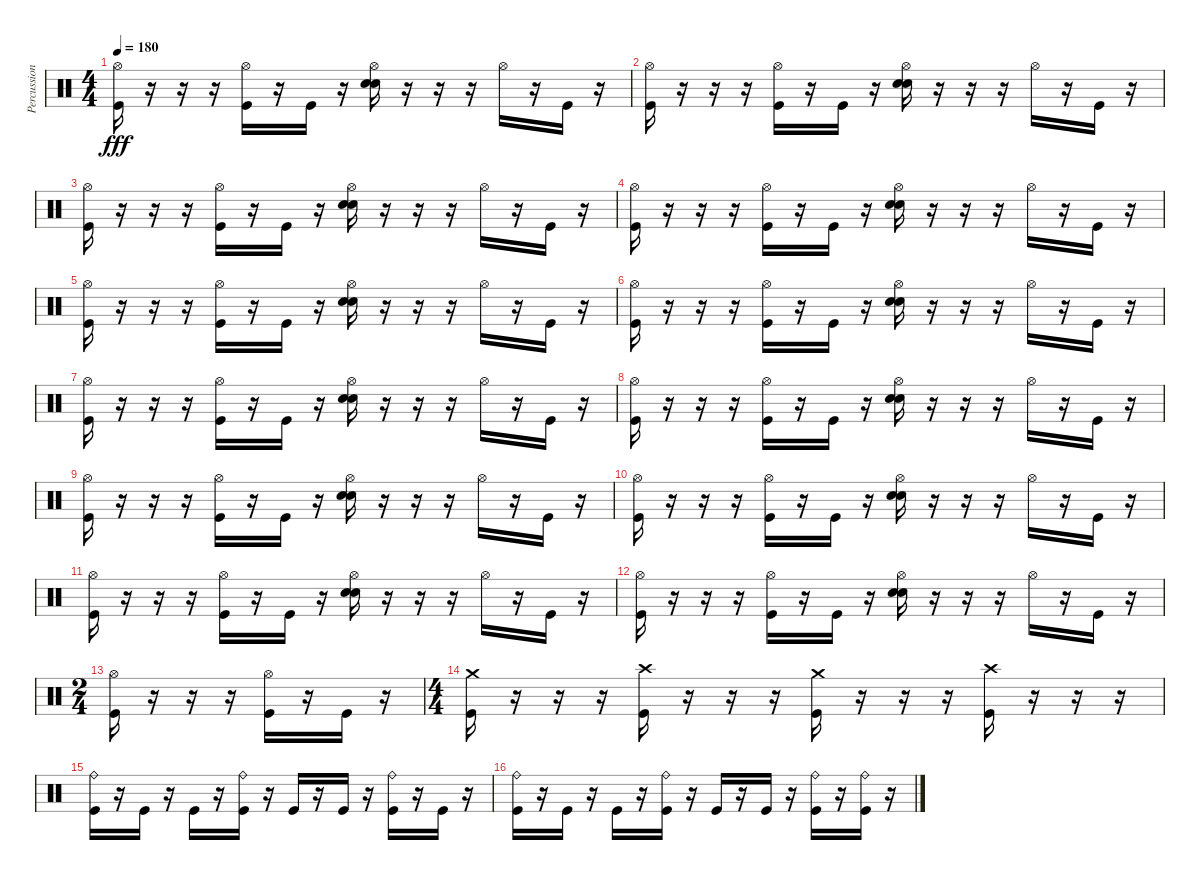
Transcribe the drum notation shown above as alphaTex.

\track ("Percussion" "Percussion") {instrument percussion}
\staff {score}
\articulation defaults
\ts (4 4)
\tempo 180
\clef neutral
\ks c
("Hi-Hat (open)" "Kick (hit)").16{dy fff} r.16 r.16 r.16 ("Hi-Hat (open)" "Kick (hit)").16 r.16 "Kick (hit)".16 r.16 ("Hi-Hat (open)" "Snare (hit) 2" "Electric Snare (hit)").16 r.16 r.16 r.16 "Hi-Hat (open)".16 r.16 "Kick (hit)".16 r.16 |
("Hi-Hat (open)" "Kick (hit)").16 r.16 r.16 r.16 ("Hi-Hat (open)" "Kick (hit)").16 r.16 "Kick (hit)".16 r.16 ("Hi-Hat (open)" "Snare (hit) 2" "Electric Snare (hit)").16 r.16 r.16 r.16 "Hi-Hat (open)".16 r.16 "Kick (hit)".16 r.16 |
("Hi-Hat (open)" "Kick (hit)").16 r.16 r.16 r.16 ("Hi-Hat (open)" "Kick (hit)").16 r.16 "Kick (hit)".16 r.16 ("Hi-Hat (open)" "Snare (hit) 2" "Electric Snare (hit)").16 r.16 r.16 r.16 "Hi-Hat (open)".16 r.16 "Kick (hit)".16 r.16 |
("Hi-Hat (open)" "Kick (hit)").16 r.16 r.16 r.16 ("Hi-Hat (open)" "Kick (hit)").16 r.16 "Kick (hit)".16 r.16 ("Hi-Hat (open)" "Snare (hit) 2" "Electric Snare (hit)").16 r.16 r.16 r.16 "Hi-Hat (open)".16 r.16 "Kick (hit)".16 r.16 |
("Hi-Hat (open)" "Kick (hit)").16 r.16 r.16 r.16 ("Hi-Hat (open)" "Kick (hit)").16 r.16 "Kick (hit)".16 r.16 ("Hi-Hat (open)" "Snare (hit) 2" "Electric Snare (hit)").16 r.16 r.16 r.16 "Hi-Hat (open)".16 r.16 "Kick (hit)".16 r.16 |
("Hi-Hat (open)" "Kick (hit)").16 r.16 r.16 r.16 ("Hi-Hat (open)" "Kick (hit)").16 r.16 "Kick (hit)".16 r.16 ("Hi-Hat (open)" "Snare (hit) 2" "Electric Snare (hit)").16 r.16 r.16 r.16 "Hi-Hat (open)".16 r.16 "Kick (hit)".16 r.16 |
("Hi-Hat (open)" "Kick (hit)").16 r.16 r.16 r.16 ("Hi-Hat (open)" "Kick (hit)").16 r.16 "Kick (hit)".16 r.16 ("Hi-Hat (open)" "Snare (hit) 2" "Electric Snare (hit)").16 r.16 r.16 r.16 "Hi-Hat (open)".16 r.16 "Kick (hit)".16 r.16 |
("Hi-Hat (open)" "Kick (hit)").16 r.16 r.16 r.16 ("Hi-Hat (open)" "Kick (hit)").16 r.16 "Kick (hit)".16 r.16 ("Hi-Hat (open)" "Snare (hit) 2" "Electric Snare (hit)").16 r.16 r.16 r.16 "Hi-Hat (open)".16 r.16 "Kick (hit)".16 r.16 |
("Hi-Hat (open)" "Kick (hit)").16 r.16 r.16 r.16 ("Hi-Hat (open)" "Kick (hit)").16 r.16 "Kick (hit)".16 r.16 ("Hi-Hat (open)" "Snare (hit) 2" "Electric Snare (hit)").16 r.16 r.16 r.16 "Hi-Hat (open)".16 r.16 "Kick (hit)".16 r.16 |
("Hi-Hat (open)" "Kick (hit)").16 r.16 r.16 r.16 ("Hi-Hat (open)" "Kick (hit)").16 r.16 "Kick (hit)".16 r.16 ("Hi-Hat (open)" "Snare (hit) 2" "Electric Snare (hit)").16 r.16 r.16 r.16 "Hi-Hat (open)".16 r.16 "Kick (hit)".16 r.16 |
("Hi-Hat (open)" "Kick (hit)").16 r.16 r.16 r.16 ("Hi-Hat (open)" "Kick (hit)").16 r.16 "Kick (hit)".16 r.16 ("Hi-Hat (open)" "Snare (hit) 2" "Electric Snare (hit)").16 r.16 r.16 r.16 "Hi-Hat (open)".16 r.16 "Kick (hit)".16 r.16 |
("Hi-Hat (open)" "Kick (hit)").16 r.16 r.16 r.16 ("Hi-Hat (open)" "Kick (hit)").16 r.16 "Kick (hit)".16 r.16 ("Hi-Hat (open)" "Snare (hit) 2" "Electric Snare (hit)").16 r.16 r.16 r.16 "Hi-Hat (open)".16 r.16 "Kick (hit)".16 r.16 |
\ts (2 4)
("Hi-Hat (open)" "Kick (hit)").16 r.16 r.16 r.16 ("Hi-Hat (open)" "Kick (hit)").16 r.16 "Kick (hit)".16 r.16 |
\ts (4 4)
("Crash medium (hit)" "Kick (hit)").16 r.16 r.16 r.16 ("Crash high (hit)" "Kick (hit)").16 r.16 r.16 r.16 ("Crash medium (hit)" "Kick (hit)").16 r.16 r.16 r.16 ("Crash high (hit)" "Kick (hit)").16 r.16 r.16 r.16 |
("Ride (bell)" "Kick (hit)").16 r.16 "Kick (hit)".16 r.16 "Kick (hit)".16 r.16 ("Ride (bell)" "Kick (hit)").16 r.16 "Kick (hit)".16 r.16 "Kick (hit)".16 r.16 ("Ride (bell)" "Kick (hit)").16 r.16 "Kick (hit)".16 r.16 |
("Ride (bell)" "Kick (hit)").16 r.16 "Kick (hit)".16 r.16 "Kick (hit)".16 r.16 ("Ride (bell)" "Kick (hit)").16 r.16 "Kick (hit)".16 r.16 "Kick (hit)".16 r.16 ("Ride (bell)" "Kick (hit)").16 r.16 ("Ride (bell)" "Kick (hit)").16 r.16
